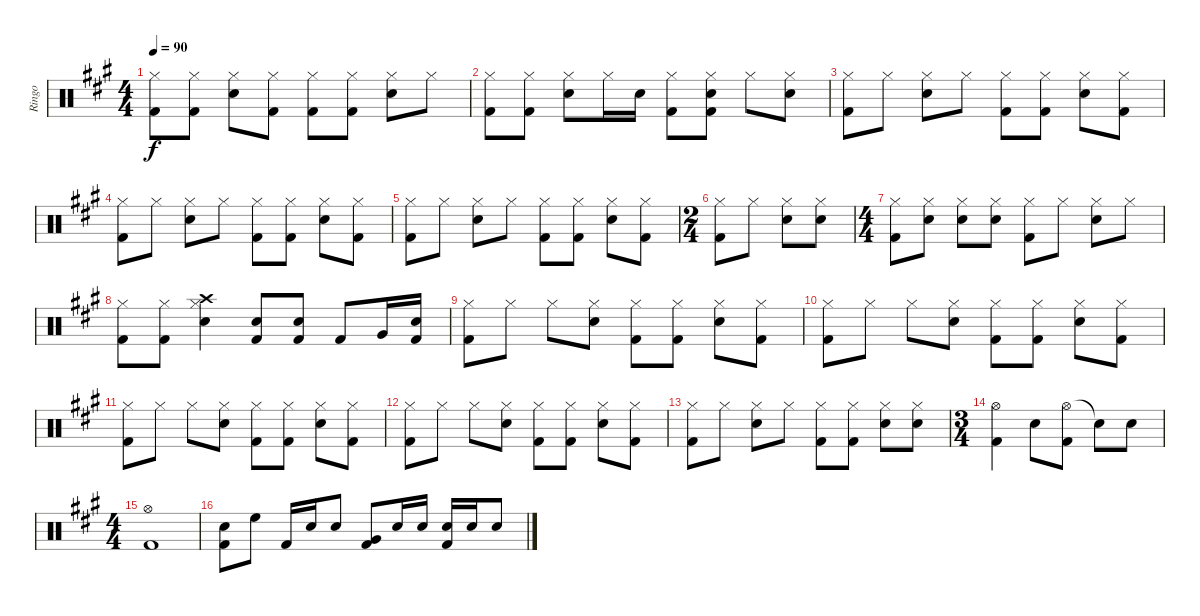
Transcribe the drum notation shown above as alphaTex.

\track ("Ringo" "Ringo") {instrument percussion}
\staff {score}
\articulation defaults
\ts (4 4)
\tempo 90
\clef neutral
\ks a
("Hi-Hat (closed)" "Kick (hit) 2").8{dy f} ("Hi-Hat (closed)" "Kick (hit) 2").8 ("Hi-Hat (closed)" "Snare (hit) 2").8 ("Hi-Hat (closed)" "Kick (hit) 2").8 ("Hi-Hat (closed)" "Kick (hit) 2").8 ("Hi-Hat (closed)" "Kick (hit) 2").8 ("Hi-Hat (closed)" "Snare (hit) 2").8 "Hi-Hat (closed)".8 |
("Hi-Hat (closed)" "Kick (hit) 2").8 ("Hi-Hat (closed)" "Kick (hit) 2").8 ("Hi-Hat (closed)" "Snare (hit) 2").8 "Hi-Hat (closed)".16 "Snare (hit) 2".16 ("Hi-Hat (closed)" "Kick (hit) 2").8 ("Hi-Hat (closed)" "Snare (hit) 2" "Kick (hit) 2").8 "Hi-Hat (closed)".8 ("Hi-Hat (closed)" "Snare (hit) 2").8 |
("Hi-Hat (closed)" "Kick (hit) 2").8 "Hi-Hat (closed)".8 ("Hi-Hat (closed)" "Snare (hit) 2").8 "Hi-Hat (closed)".8 ("Hi-Hat (closed)" "Kick (hit) 2").8 ("Hi-Hat (closed)" "Kick (hit) 2").8 ("Hi-Hat (closed)" "Snare (hit) 2").8 ("Hi-Hat (closed)" "Kick (hit) 2").8 |
("Hi-Hat (closed)" "Kick (hit) 2").8 "Hi-Hat (closed)".8 ("Hi-Hat (closed)" "Snare (hit) 2").8 "Hi-Hat (closed)".8 ("Hi-Hat (closed)" "Kick (hit) 2").8 ("Hi-Hat (closed)" "Kick (hit) 2").8 ("Hi-Hat (closed)" "Snare (hit) 2").8 ("Hi-Hat (closed)" "Kick (hit) 2").8 |
("Hi-Hat (closed)" "Kick (hit) 2").8 "Hi-Hat (closed)".8 ("Hi-Hat (closed)" "Snare (hit) 2").8 "Hi-Hat (closed)".8 ("Hi-Hat (closed)" "Kick (hit) 2").8 ("Hi-Hat (closed)" "Kick (hit) 2").8 ("Hi-Hat (closed)" "Snare (hit) 2").8 ("Hi-Hat (closed)" "Kick (hit) 2").8 |
\ts (2 4)
("Hi-Hat (closed)" "Kick (hit) 2").8 "Hi-Hat (closed)".8 ("Hi-Hat (closed)" "Snare (hit) 2").8 ("Hi-Hat (closed)" "Snare (hit) 2").8 |
\ts (4 4)
("Hi-Hat (closed)" "Kick (hit) 2").8 ("Hi-Hat (closed)" "Snare (hit) 2").8 ("Hi-Hat (closed)" "Snare (hit) 2").8 ("Hi-Hat (closed)" "Snare (hit) 2").8 ("Hi-Hat (closed)" "Kick (hit) 2").8 "Hi-Hat (closed)".8 ("Hi-Hat (closed)" "Snare (hit) 2").8 "Hi-Hat (closed)".8 |
("Hi-Hat (closed)" "Kick (hit) 2").8 ("Hi-Hat (closed)" "Kick (hit) 2").8 ("Hi-Hat (closed)" "Crash high (hit)" "Snare (hit) 2").4 ("Snare (hit) 2" "Kick (hit) 2").8 ("Snare (hit) 2" "Kick (hit) 2").8 "Kick (hit) 2".8 "Very Low Tom (hit)".16 ("Snare (hit) 2" "Kick (hit) 2").16 |
("Hi-Hat (closed)" "Kick (hit) 2").8 "Hi-Hat (closed)".8 "Hi-Hat (closed)".8 ("Hi-Hat (closed)" "Snare (hit) 2").8 ("Hi-Hat (closed)" "Kick (hit) 2").8 ("Hi-Hat (closed)" "Kick (hit) 2").8 ("Hi-Hat (closed)" "Snare (hit) 2").8 ("Hi-Hat (closed)" "Kick (hit) 2").8 |
("Hi-Hat (closed)" "Kick (hit) 2").8 "Hi-Hat (closed)".8 "Hi-Hat (closed)".8 ("Hi-Hat (closed)" "Snare (hit) 2").8 ("Hi-Hat (closed)" "Kick (hit) 2").8 ("Hi-Hat (closed)" "Kick (hit) 2").8 ("Hi-Hat (closed)" "Snare (hit) 2").8 ("Hi-Hat (closed)" "Kick (hit) 2").8 |
("Hi-Hat (closed)" "Kick (hit) 2").8 "Hi-Hat (closed)".8 "Hi-Hat (closed)".8 ("Hi-Hat (closed)" "Snare (hit) 2").8 ("Hi-Hat (closed)" "Kick (hit) 2").8 ("Hi-Hat (closed)" "Kick (hit) 2").8 ("Hi-Hat (closed)" "Snare (hit) 2").8 ("Hi-Hat (closed)" "Kick (hit) 2").8 |
("Hi-Hat (closed)" "Kick (hit) 2").8 "Hi-Hat (closed)".8 "Hi-Hat (closed)".8 ("Hi-Hat (closed)" "Snare (hit) 2").8 ("Hi-Hat (closed)" "Kick (hit) 2").8 ("Hi-Hat (closed)" "Kick (hit) 2").8 ("Hi-Hat (closed)" "Snare (hit) 2").8 ("Hi-Hat (closed)" "Kick (hit) 2").8 |
("Hi-Hat (closed)" "Kick (hit) 2").8 "Hi-Hat (closed)".8 ("Hi-Hat (closed)" "Snare (hit) 2").8 "Hi-Hat (closed)".8 ("Hi-Hat (closed)" "Kick (hit) 2").8 ("Hi-Hat (closed)" "Kick (hit) 2").8 ("Hi-Hat (closed)" "Snare (hit) 2").8 ("Hi-Hat (closed)" "Snare (hit) 2").8 |
\ts (3 4)
("Hi-Hat (open)" "Kick (hit) 2").4 "Snare (hit) 2".8 ("Hi-Hat (open)" "Kick (hit) 2").8 "Snare (hit)"{t}.8 "Snare (hit) 2".8 |
\ts (4 4)
("Hi-Hat (open)" "Kick (hit) 2").1 |
("Snare (hit) 2" "Kick (hit) 2").8 "High Floor Tom (hit)".8 "Kick (hit) 2".16 "Snare (hit) 2".16 "Snare (hit) 2".8 ("Very Low Tom (hit)" "Kick (hit) 2").8 "Snare (hit) 2".16 "Snare (hit) 2".16 ("Snare (hit) 2" "Kick (hit) 2").16 "Snare (hit) 2".16 "Snare (hit) 2".8
